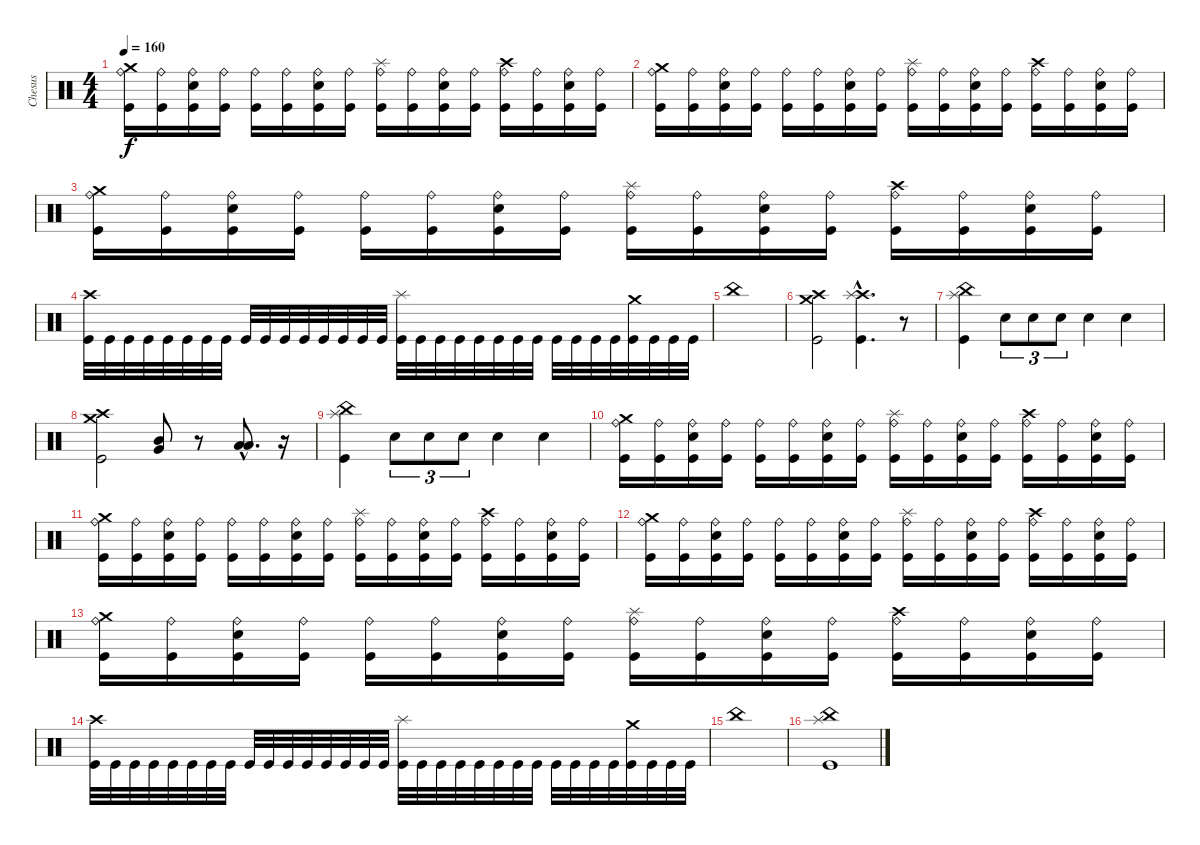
\track ("Chesus" "Chesus") {instrument percussion}
\staff {score}
\articulation defaults
\ts (4 4)
\tempo 160
\clef neutral
\ks c
("Crash medium (hit)" "Ride (bell)" "Kick (hit)").16{dy f} ("Ride (bell)" "Kick (hit)").16 ("Ride (bell)" "Snare (hit) 2" "Kick (hit)").16 ("Ride (bell)" "Kick (hit)").16 ("Ride (bell)" "Kick (hit)").16 ("Ride (bell)" "Kick (hit)").16 ("Ride (bell)" "Snare (hit) 2" "Kick (hit)").16 ("Ride (bell)" "Kick (hit)").16 ("Splash (hit)" "Ride (bell)" "Kick (hit)").16 ("Ride (bell)" "Kick (hit)").16 ("Ride (bell)" "Snare (hit) 2" "Kick (hit)").16 ("Ride (bell)" "Kick (hit)").16 ("Crash high (hit)" "Ride (bell)" "Kick (hit)").16 ("Ride (bell)" "Kick (hit)").16 ("Ride (bell)" "Snare (hit) 2" "Kick (hit)").16 ("Ride (bell)" "Kick (hit)").16 |
("Crash medium (hit)" "Ride (bell)" "Kick (hit)").16 ("Ride (bell)" "Kick (hit)").16 ("Ride (bell)" "Snare (hit) 2" "Kick (hit)").16 ("Ride (bell)" "Kick (hit)").16 ("Ride (bell)" "Kick (hit)").16 ("Ride (bell)" "Kick (hit)").16 ("Ride (bell)" "Snare (hit) 2" "Kick (hit)").16 ("Ride (bell)" "Kick (hit)").16 ("Splash (hit)" "Ride (bell)" "Kick (hit)").16 ("Ride (bell)" "Kick (hit)").16 ("Ride (bell)" "Snare (hit) 2" "Kick (hit)").16 ("Ride (bell)" "Kick (hit)").16 ("Crash high (hit)" "Ride (bell)" "Kick (hit)").16 ("Ride (bell)" "Kick (hit)").16 ("Ride (bell)" "Snare (hit) 2" "Kick (hit)").16 ("Ride (bell)" "Kick (hit)").16 |
("Crash medium (hit)" "Ride (bell)" "Kick (hit)").16 ("Ride (bell)" "Kick (hit)").16 ("Ride (bell)" "Snare (hit) 2" "Kick (hit)").16 ("Ride (bell)" "Kick (hit)").16 ("Ride (bell)" "Kick (hit)").16 ("Ride (bell)" "Kick (hit)").16 ("Ride (bell)" "Snare (hit) 2" "Kick (hit)").16 ("Ride (bell)" "Kick (hit)").16 ("Splash (hit)" "Ride (bell)" "Kick (hit)").16 ("Ride (bell)" "Kick (hit)").16 ("Ride (bell)" "Snare (hit) 2" "Kick (hit)").16 ("Ride (bell)" "Kick (hit)").16 ("Crash high (hit)" "Ride (bell)" "Kick (hit)").16 ("Ride (bell)" "Kick (hit)").16 ("Ride (bell)" "Snare (hit) 2" "Kick (hit)").16 ("Ride (bell)" "Kick (hit)").16 |
("Crash high (hit)" "Kick (hit)").32 "Kick (hit)".32 "Kick (hit)".32 "Kick (hit)".32 "Kick (hit)".32 "Kick (hit)".32 "Kick (hit)".32 "Kick (hit)".32 "Kick (hit)".32 "Kick (hit)".32 "Kick (hit)".32 "Kick (hit)".32 "Kick (hit)".32 "Kick (hit)".32 "Kick (hit)".32 "Kick (hit)".32 ("Splash (hit)" "Kick (hit)").32 "Kick (hit)".32 "Kick (hit)".32 "Kick (hit)".32 "Kick (hit)".32 "Kick (hit)".32 "Kick (hit)".32 "Kick (hit)".32 "Kick (hit)".32 "Kick (hit)".32 "Kick (hit)".32 "Kick (hit)".32 ("Crash medium (hit)" "Kick (hit)").32 "Kick (hit)".32 "Kick (hit)".32 "Kick (hit)".32 |
"China (hit)".1 |
("Crash high (hit)" "Crash medium (hit)" "Kick (hit)").2 ("Crash high (hit)"{hac} "Splash (hit)"{hac} "Kick (hit)"{hac}).4{d} r.8 |
("Splash (hit)" "China (hit)" "Kick (hit)").4 "Snare (hit) 2".8{tu (3 2)} "Snare (hit) 2".8{tu (3 2)} "Snare (hit) 2".8{tu (3 2)} "Snare (hit) 2".4 "Snare (hit) 2".4 |
("Crash medium (hit)" "Crash high (hit)" "Kick (hit)").2 ("Mid Tom (hit)" "Very Low Tom (hit)").8 r.8 ("Low Tom (hit)"{hac} "Low Floor Tom (hit)"{hac}).8{d} r.16 |
("Splash (hit)" "China (hit)" "Kick (hit)").4 "Snare (hit) 2".8{tu (3 2)} "Snare (hit) 2".8{tu (3 2)} "Snare (hit) 2".8{tu (3 2)} "Snare (hit) 2".4 "Snare (hit) 2".4 |
("Crash medium (hit)" "Ride (bell)" "Kick (hit)").16 ("Ride (bell)" "Kick (hit)").16 ("Ride (bell)" "Snare (hit) 2" "Kick (hit)").16 ("Ride (bell)" "Kick (hit)").16 ("Ride (bell)" "Kick (hit)").16 ("Ride (bell)" "Kick (hit)").16 ("Ride (bell)" "Snare (hit) 2" "Kick (hit)").16 ("Ride (bell)" "Kick (hit)").16 ("Splash (hit)" "Ride (bell)" "Kick (hit)").16 ("Ride (bell)" "Kick (hit)").16 ("Ride (bell)" "Snare (hit) 2" "Kick (hit)").16 ("Ride (bell)" "Kick (hit)").16 ("Crash high (hit)" "Ride (bell)" "Kick (hit)").16 ("Ride (bell)" "Kick (hit)").16 ("Ride (bell)" "Snare (hit) 2" "Kick (hit)").16 ("Ride (bell)" "Kick (hit)").16 |
("Crash medium (hit)" "Ride (bell)" "Kick (hit)").16 ("Ride (bell)" "Kick (hit)").16 ("Ride (bell)" "Snare (hit) 2" "Kick (hit)").16 ("Ride (bell)" "Kick (hit)").16 ("Ride (bell)" "Kick (hit)").16 ("Ride (bell)" "Kick (hit)").16 ("Ride (bell)" "Snare (hit) 2" "Kick (hit)").16 ("Ride (bell)" "Kick (hit)").16 ("Splash (hit)" "Ride (bell)" "Kick (hit)").16 ("Ride (bell)" "Kick (hit)").16 ("Ride (bell)" "Snare (hit) 2" "Kick (hit)").16 ("Ride (bell)" "Kick (hit)").16 ("Crash high (hit)" "Ride (bell)" "Kick (hit)").16 ("Ride (bell)" "Kick (hit)").16 ("Ride (bell)" "Snare (hit) 2" "Kick (hit)").16 ("Ride (bell)" "Kick (hit)").16 |
("Crash medium (hit)" "Ride (bell)" "Kick (hit)").16 ("Ride (bell)" "Kick (hit)").16 ("Ride (bell)" "Snare (hit) 2" "Kick (hit)").16 ("Ride (bell)" "Kick (hit)").16 ("Ride (bell)" "Kick (hit)").16 ("Ride (bell)" "Kick (hit)").16 ("Ride (bell)" "Snare (hit) 2" "Kick (hit)").16 ("Ride (bell)" "Kick (hit)").16 ("Splash (hit)" "Ride (bell)" "Kick (hit)").16 ("Ride (bell)" "Kick (hit)").16 ("Ride (bell)" "Snare (hit) 2" "Kick (hit)").16 ("Ride (bell)" "Kick (hit)").16 ("Crash high (hit)" "Ride (bell)" "Kick (hit)").16 ("Ride (bell)" "Kick (hit)").16 ("Ride (bell)" "Snare (hit) 2" "Kick (hit)").16 ("Ride (bell)" "Kick (hit)").16 |
("Crash medium (hit)" "Ride (bell)" "Kick (hit)").16 ("Ride (bell)" "Kick (hit)").16 ("Ride (bell)" "Snare (hit) 2" "Kick (hit)").16 ("Ride (bell)" "Kick (hit)").16 ("Ride (bell)" "Kick (hit)").16 ("Ride (bell)" "Kick (hit)").16 ("Ride (bell)" "Snare (hit) 2" "Kick (hit)").16 ("Ride (bell)" "Kick (hit)").16 ("Splash (hit)" "Ride (bell)" "Kick (hit)").16 ("Ride (bell)" "Kick (hit)").16 ("Ride (bell)" "Snare (hit) 2" "Kick (hit)").16 ("Ride (bell)" "Kick (hit)").16 ("Crash high (hit)" "Ride (bell)" "Kick (hit)").16 ("Ride (bell)" "Kick (hit)").16 ("Ride (bell)" "Snare (hit) 2" "Kick (hit)").16 ("Ride (bell)" "Kick (hit)").16 |
("Crash high (hit)" "Kick (hit)").32 "Kick (hit)".32 "Kick (hit)".32 "Kick (hit)".32 "Kick (hit)".32 "Kick (hit)".32 "Kick (hit)".32 "Kick (hit)".32 "Kick (hit)".32 "Kick (hit)".32 "Kick (hit)".32 "Kick (hit)".32 "Kick (hit)".32 "Kick (hit)".32 "Kick (hit)".32 "Kick (hit)".32 ("Splash (hit)" "Kick (hit)").32 "Kick (hit)".32 "Kick (hit)".32 "Kick (hit)".32 "Kick (hit)".32 "Kick (hit)".32 "Kick (hit)".32 "Kick (hit)".32 "Kick (hit)".32 "Kick (hit)".32 "Kick (hit)".32 "Kick (hit)".32 ("Crash medium (hit)" "Kick (hit)").32 "Kick (hit)".32 "Kick (hit)".32 "Kick (hit)".32 |
"China (hit)".1 |
("China (hit)" "Splash (hit)" "Kick (hit)").1
